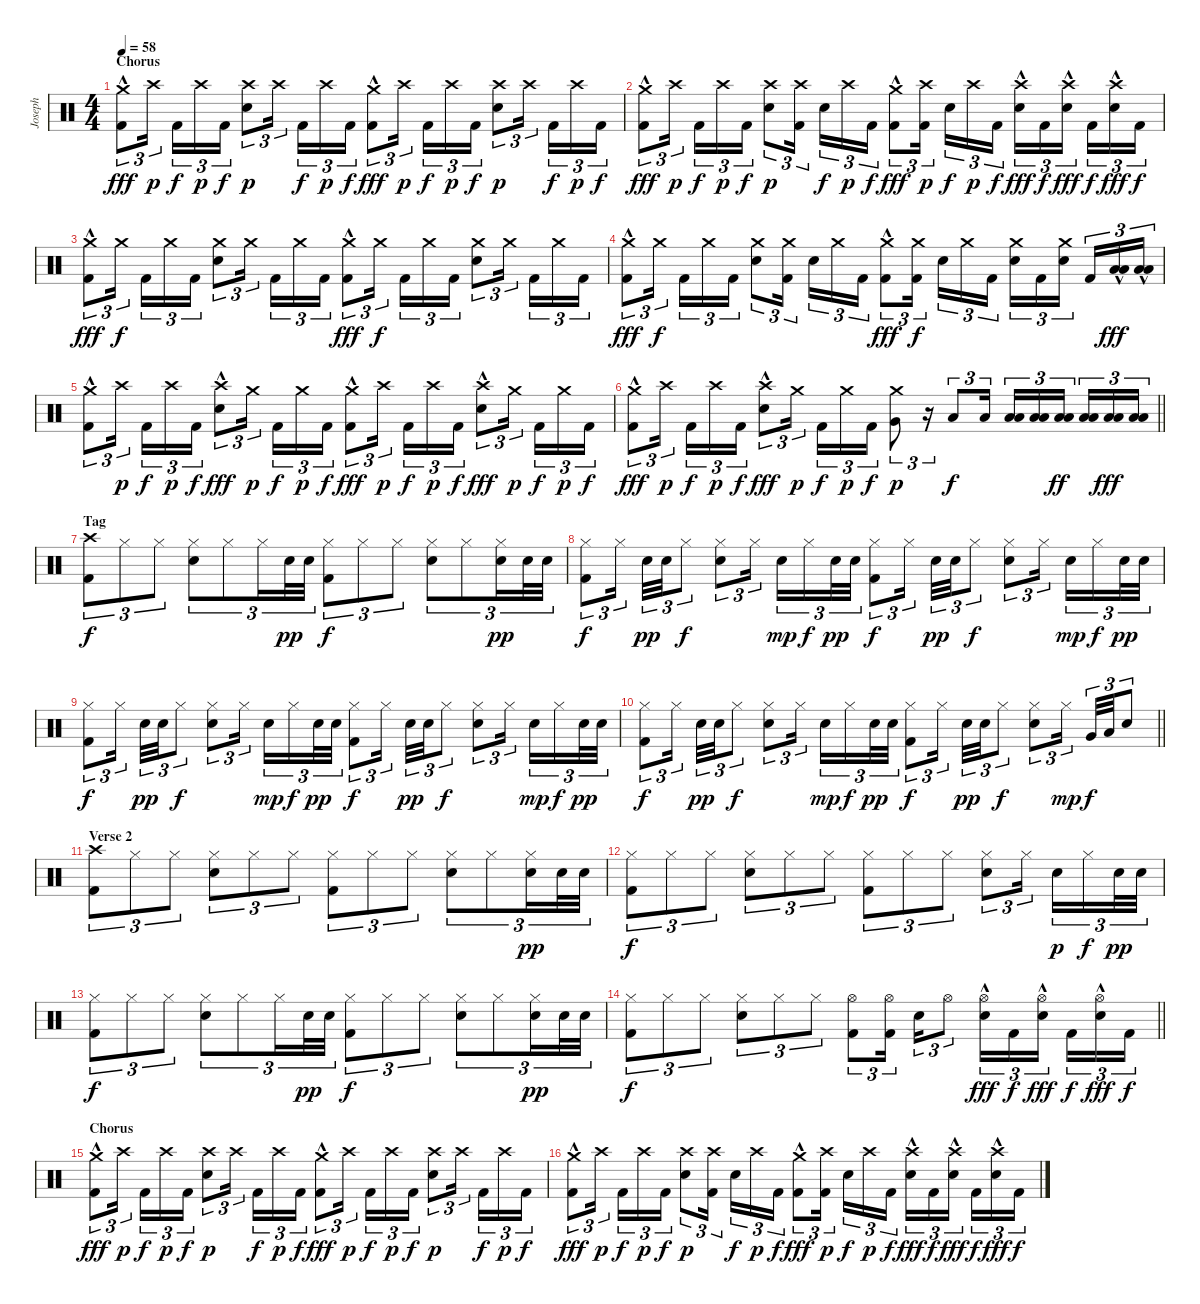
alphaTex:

\track ("Joseph" "Joseph") {instrument percussion}
\staff {score}
\articulation defaults
\ts (4 4)
\section ("" "Chorus")
\tempo 58
\clef neutral
\ks c
("Crash medium (hit)"{hac} "Kick (hit) 2").8{tu (3 2) dy fff} "Crash high (hit)".16{tu (3 2) dy p beam splitsecondary} "Kick (hit) 2".16{tu (3 2) dy f} "Crash high (hit)".16{tu (3 2) dy p} "Kick (hit) 2".16{tu (3 2) dy f} ("Crash high (hit)" "Electric Snare (hit)").8{tu (3 2) dy p} "Crash high (hit)".16{tu (3 2) beam splitsecondary} "Kick (hit) 2".16{tu (3 2) dy f} "Crash high (hit)".16{tu (3 2) dy p} "Kick (hit) 2".16{tu (3 2) dy f} ("Crash medium (hit)"{hac} "Kick (hit) 2").8{tu (3 2) dy fff} "Crash high (hit)".16{tu (3 2) dy p beam splitsecondary} "Kick (hit) 2".16{tu (3 2) dy f} "Crash high (hit)".16{tu (3 2) dy p} "Kick (hit) 2".16{tu (3 2) dy f} ("Crash high (hit)" "Electric Snare (hit)").8{tu (3 2) dy p} "Crash high (hit)".16{tu (3 2) beam splitsecondary} "Kick (hit) 2".16{tu (3 2) dy f} "Crash high (hit)".16{tu (3 2) dy p} "Kick (hit) 2".16{tu (3 2) dy f} |
("Crash medium (hit)"{hac} "Kick (hit) 2").8{tu (3 2) dy fff} "Crash high (hit)".16{tu (3 2) dy p beam splitsecondary} "Kick (hit) 2".16{tu (3 2) dy f} "Crash high (hit)".16{tu (3 2) dy p} "Kick (hit) 2".16{tu (3 2) dy f} ("Crash high (hit)" "Electric Snare (hit)").8{tu (3 2) dy p} ("Crash high (hit)" "Kick (hit) 2").16{tu (3 2) beam splitsecondary} "Electric Snare (hit)".16{tu (3 2) dy f} "Crash high (hit)".16{tu (3 2) dy p} "Kick (hit) 2".16{tu (3 2) dy f} ("Crash medium (hit)"{hac} "Kick (hit) 2").8{tu (3 2) dy fff} ("Crash high (hit)" "Kick (hit) 2").16{tu (3 2) dy p beam splitsecondary} "Electric Snare (hit)".16{tu (3 2) dy f} "Crash high (hit)".16{tu (3 2) dy p} "Kick (hit) 2".16{tu (3 2) dy f} ("Crash high (hit)" "Electric Snare (hit)"{hac}).16{tu (3 2) dy fff} "Kick (hit) 2".16{tu (3 2) dy f} ("Crash high (hit)" "Electric Snare (hit)"{hac}).16{tu (3 2) dy fff beam splitsecondary} "Kick (hit) 2".16{tu (3 2) dy f} ("Crash high (hit)" "Electric Snare (hit)"{hac}).16{tu (3 2) dy fff} "Kick (hit) 2".16{tu (3 2) dy f} |
("Crash medium (hit)"{hac} "Kick (hit) 2").8{tu (3 2) dy fff} "Crash medium (hit)".16{tu (3 2) dy f beam splitsecondary} "Kick (hit) 2".16{tu (3 2)} "Crash medium (hit)".16{tu (3 2)} "Kick (hit) 2".16{tu (3 2)} ("Crash medium (hit)" "Electric Snare (hit)").8{tu (3 2)} "Crash medium (hit)".16{tu (3 2) beam splitsecondary} "Kick (hit) 2".16{tu (3 2)} "Crash medium (hit)".16{tu (3 2)} "Kick (hit) 2".16{tu (3 2)} ("Crash medium (hit)"{hac} "Kick (hit) 2").8{tu (3 2) dy fff} "Crash medium (hit)".16{tu (3 2) dy f beam splitsecondary} "Kick (hit) 2".16{tu (3 2)} "Crash medium (hit)".16{tu (3 2)} "Kick (hit) 2".16{tu (3 2)} ("Crash medium (hit)" "Electric Snare (hit)").8{tu (3 2)} "Crash medium (hit)".16{tu (3 2) beam splitsecondary} "Kick (hit) 2".16{tu (3 2)} "Crash medium (hit)".16{tu (3 2)} "Kick (hit) 2".16{tu (3 2)} |
("Crash medium (hit)"{hac} "Kick (hit) 2").8{tu (3 2) dy fff} "Crash medium (hit)".16{tu (3 2) dy f beam splitsecondary} "Kick (hit) 2".16{tu (3 2)} "Crash medium (hit)".16{tu (3 2)} "Kick (hit) 2".16{tu (3 2)} ("Crash medium (hit)" "Electric Snare (hit)").8{tu (3 2)} ("Crash medium (hit)" "Kick (hit) 2").16{tu (3 2) beam splitsecondary} "Electric Snare (hit)".16{tu (3 2)} "Crash medium (hit)".16{tu (3 2)} "Kick (hit) 2".16{tu (3 2)} ("Crash medium (hit)"{hac} "Kick (hit) 2").8{tu (3 2) dy fff} ("Crash medium (hit)" "Kick (hit) 2").16{tu (3 2) dy f beam splitsecondary} "Electric Snare (hit)".16{tu (3 2)} "Crash medium (hit)".16{tu (3 2)} "Kick (hit) 2".16{tu (3 2)} ("Crash medium (hit)" "Electric Snare (hit)").16{tu (3 2)} "Kick (hit) 2".16{tu (3 2)} ("Crash medium (hit)" "Electric Snare (hit)").16{tu (3 2) beam splitsecondary} "Kick (hit) 2".16{tu (3 2)} ("Low Tom (hit)"{hac} "Low Tom (hit)"{hac}).16{tu (3 2) dy fff} ("Low Floor Tom (hit)"{hac} "Low Floor Tom (hit)"{hac}).16{tu (3 2)} |
("Crash medium (hit)"{hac} "Kick (hit) 2").8{tu (3 2)} "Crash high (hit)".16{tu (3 2) dy p beam splitsecondary} "Kick (hit) 2".16{tu (3 2) dy f} "Crash high (hit)".16{tu (3 2) dy p} "Kick (hit) 2".16{tu (3 2) dy f} ("Crash high (hit)"{hac} "Electric Snare (hit)").8{tu (3 2) dy fff} "Crash medium (hit)".16{tu (3 2) dy p beam splitsecondary} "Kick (hit) 2".16{tu (3 2) dy f} "Crash medium (hit)".16{tu (3 2) dy p} "Kick (hit) 2".16{tu (3 2) dy f} ("Crash medium (hit)"{hac} "Kick (hit) 2").8{tu (3 2) dy fff} "Crash high (hit)".16{tu (3 2) dy p beam splitsecondary} "Kick (hit) 2".16{tu (3 2) dy f} "Crash high (hit)".16{tu (3 2) dy p} "Kick (hit) 2".16{tu (3 2) dy f} ("Crash high (hit)"{hac} "Electric Snare (hit)").8{tu (3 2) dy fff} "Crash medium (hit)".16{tu (3 2) dy p beam splitsecondary} "Kick (hit) 2".16{tu (3 2) dy f} "Crash medium (hit)".16{tu (3 2) dy p} "Kick (hit) 2".16{tu (3 2) dy f} |
\barLineRight lightlight
("Crash medium (hit)"{hac} "Kick (hit) 2").8{tu (3 2) dy fff} "Crash high (hit)".16{tu (3 2) dy p beam splitsecondary} "Kick (hit) 2".16{tu (3 2) dy f} "Crash high (hit)".16{tu (3 2) dy p} "Kick (hit) 2".16{tu (3 2) dy f} ("Crash high (hit)"{hac} "Electric Snare (hit)").8{tu (3 2) dy fff} "Crash medium (hit)".16{tu (3 2) dy p beam splitsecondary} "Kick (hit) 2".16{tu (3 2) dy f} "Crash medium (hit)".16{tu (3 2) dy p} "Kick (hit) 2".16{tu (3 2) dy f} ("Crash medium (hit)" "Very Low Tom (hit)").8{tu (3 2) dy p} r.16{tu (3 2)} "Low Floor Tom (hit)".8{tu (3 2) dy f} "Low Floor Tom (hit)".16{tu (3 2)} ("Low Tom (hit)" "Low Floor Tom (hit)").16{tu (3 2)} ("Low Tom (hit)" "Low Floor Tom (hit)").16{tu (3 2)} ("Low Tom (hit)" "Low Floor Tom (hit)").16{tu (3 2) dy ff beam splitsecondary} ("Low Tom (hit)" "Low Floor Tom (hit)").16{tu (3 2)} ("Low Tom (hit)" "Low Floor Tom (hit)").16{tu (3 2) dy fff} ("Low Tom (hit)" "Low Floor Tom (hit)").16{tu (3 2)} |
\section ("" "Tag")
("Crash high (hit)" "Kick (hit) 2").8{tu (3 2) dy f} "Hi-Hat (closed)".8{tu (3 2)} "Hi-Hat (closed)".8{tu (3 2)} ("Hi-Hat (closed)" "Electric Snare (hit)").8{tu (3 2)} "Hi-Hat (closed)".8{tu (3 2)} "Hi-Hat (closed)".16{tu (3 2)} "Electric Snare (hit)".32{tu (3 2) dy pp} "Electric Snare (hit)".32{tu (3 2)} ("Hi-Hat (closed)" "Kick (hit) 2").8{tu (3 2) dy f} "Hi-Hat (closed)".8{tu (3 2)} "Hi-Hat (closed)".8{tu (3 2)} ("Hi-Hat (closed)" "Electric Snare (hit)").8{tu (3 2)} "Hi-Hat (closed)".8{tu (3 2)} ("Hi-Hat (closed)" "Electric Snare (hit)").16{tu (3 2) dy pp} "Electric Snare (hit)".32{tu (3 2)} "Electric Snare (hit)".32{tu (3 2)} |
("Hi-Hat (closed)" "Kick (hit) 2").8{tu (3 2) dy f} "Hi-Hat (closed)".16{tu (3 2) beam splitsecondary} "Electric Snare (hit)".32{tu (3 2) dy pp} "Electric Snare (hit)".32{tu (3 2)} "Hi-Hat (closed)".8{tu (3 2) dy f} ("Hi-Hat (closed)" "Electric Snare (hit)").8{tu (3 2)} "Hi-Hat (closed)".16{tu (3 2) beam splitsecondary} "Electric Snare (hit)".16{tu (3 2) dy mp} "Hi-Hat (closed)".16{tu (3 2) dy f} "Electric Snare (hit)".32{tu (3 2) dy pp} "Electric Snare (hit)".32{tu (3 2)} ("Hi-Hat (closed)" "Kick (hit) 2").8{tu (3 2) dy f} "Hi-Hat (closed)".16{tu (3 2) beam splitsecondary} "Electric Snare (hit)".32{tu (3 2) dy pp} "Electric Snare (hit)".32{tu (3 2)} "Hi-Hat (closed)".8{tu (3 2) dy f} ("Hi-Hat (closed)" "Electric Snare (hit)").8{tu (3 2)} "Hi-Hat (closed)".16{tu (3 2) beam splitsecondary} "Electric Snare (hit)".16{tu (3 2) dy mp} "Hi-Hat (closed)".16{tu (3 2) dy f} "Electric Snare (hit)".32{tu (3 2) dy pp} "Electric Snare (hit)".32{tu (3 2)} |
("Hi-Hat (closed)" "Kick (hit) 2").8{tu (3 2) dy f} "Hi-Hat (closed)".16{tu (3 2) beam splitsecondary} "Electric Snare (hit)".32{tu (3 2) dy pp} "Electric Snare (hit)".32{tu (3 2)} "Hi-Hat (closed)".8{tu (3 2) dy f} ("Hi-Hat (closed)" "Electric Snare (hit)").8{tu (3 2)} "Hi-Hat (closed)".16{tu (3 2) beam splitsecondary} "Electric Snare (hit)".16{tu (3 2) dy mp} "Hi-Hat (closed)".16{tu (3 2) dy f} "Electric Snare (hit)".32{tu (3 2) dy pp} "Electric Snare (hit)".32{tu (3 2)} ("Hi-Hat (closed)" "Kick (hit) 2").8{tu (3 2) dy f} "Hi-Hat (closed)".16{tu (3 2) beam splitsecondary} "Electric Snare (hit)".32{tu (3 2) dy pp} "Electric Snare (hit)".32{tu (3 2)} "Hi-Hat (closed)".8{tu (3 2) dy f} ("Hi-Hat (closed)" "Electric Snare (hit)").8{tu (3 2)} "Hi-Hat (closed)".16{tu (3 2) beam splitsecondary} "Electric Snare (hit)".16{tu (3 2) dy mp} "Hi-Hat (closed)".16{tu (3 2) dy f} "Electric Snare (hit)".32{tu (3 2) dy pp} "Electric Snare (hit)".32{tu (3 2)} |
\barLineRight lightlight
("Hi-Hat (closed)" "Kick (hit) 2").8{tu (3 2) dy f} "Hi-Hat (closed)".16{tu (3 2) beam splitsecondary} "Electric Snare (hit)".32{tu (3 2) dy pp} "Electric Snare (hit)".32{tu (3 2)} "Hi-Hat (closed)".8{tu (3 2) dy f} ("Hi-Hat (closed)" "Electric Snare (hit)").8{tu (3 2)} "Hi-Hat (closed)".16{tu (3 2) beam splitsecondary} "Electric Snare (hit)".16{tu (3 2) dy mp} "Hi-Hat (closed)".16{tu (3 2) dy f} "Electric Snare (hit)".32{tu (3 2) dy pp} "Electric Snare (hit)".32{tu (3 2)} ("Hi-Hat (closed)" "Kick (hit) 2").8{tu (3 2) dy f} "Hi-Hat (closed)".16{tu (3 2) beam splitsecondary} "Electric Snare (hit)".32{tu (3 2) dy pp} "Electric Snare (hit)".32{tu (3 2)} "Hi-Hat (closed)".8{tu (3 2) dy f} ("Hi-Hat (closed)" "Electric Snare (hit)").8{tu (3 2)} "Hi-Hat (closed)".16{tu (3 2) dy mp beam splitsecondary} "Very Low Tom (hit)".32{tu (3 2) dy f} "Low Tom (hit)".32{tu (3 2)} "Electric Snare (hit)".8{tu (3 2)} |
\section ("" "Verse 2")
("Crash high (hit)" "Kick (hit) 2").8{tu (3 2)} "Hi-Hat (closed)".8{tu (3 2)} "Hi-Hat (closed)".8{tu (3 2)} ("Hi-Hat (closed)" "Electric Snare (hit)").8{tu (3 2)} "Hi-Hat (closed)".8{tu (3 2)} "Hi-Hat (closed)".8{tu (3 2)} ("Hi-Hat (closed)" "Kick (hit) 2").8{tu (3 2)} "Hi-Hat (closed)".8{tu (3 2)} "Hi-Hat (closed)".8{tu (3 2)} ("Hi-Hat (closed)" "Electric Snare (hit)").8{tu (3 2)} "Hi-Hat (closed)".8{tu (3 2)} ("Hi-Hat (closed)" "Electric Snare (hit)").16{tu (3 2) dy pp} "Electric Snare (hit)".32{tu (3 2)} "Electric Snare (hit)".32{tu (3 2)} |
("Hi-Hat (closed)" "Kick (hit) 2").8{tu (3 2) dy f} "Hi-Hat (closed)".8{tu (3 2)} "Hi-Hat (closed)".8{tu (3 2)} ("Hi-Hat (closed)" "Electric Snare (hit)").8{tu (3 2)} "Hi-Hat (closed)".8{tu (3 2)} "Hi-Hat (closed)".8{tu (3 2)} ("Hi-Hat (closed)" "Kick (hit) 2").8{tu (3 2)} "Hi-Hat (closed)".8{tu (3 2)} "Hi-Hat (closed)".8{tu (3 2)} ("Hi-Hat (closed)" "Electric Snare (hit)").8{tu (3 2)} "Hi-Hat (closed)".16{tu (3 2) beam splitsecondary} "Electric Snare (hit)".16{tu (3 2) dy p} "Hi-Hat (closed)".16{tu (3 2) dy f} "Electric Snare (hit)".32{tu (3 2) dy pp} "Electric Snare (hit)".32{tu (3 2)} |
("Hi-Hat (closed)" "Kick (hit) 2").8{tu (3 2) dy f} "Hi-Hat (closed)".8{tu (3 2)} "Hi-Hat (closed)".8{tu (3 2)} ("Hi-Hat (closed)" "Electric Snare (hit)").8{tu (3 2)} "Hi-Hat (closed)".8{tu (3 2)} "Hi-Hat (closed)".16{tu (3 2)} "Electric Snare (hit)".32{tu (3 2) dy pp} "Electric Snare (hit)".32{tu (3 2)} ("Hi-Hat (closed)" "Kick (hit) 2").8{tu (3 2) dy f} "Hi-Hat (closed)".8{tu (3 2)} "Hi-Hat (closed)".8{tu (3 2)} ("Hi-Hat (closed)" "Electric Snare (hit)").8{tu (3 2)} "Hi-Hat (closed)".8{tu (3 2)} ("Hi-Hat (closed)" "Electric Snare (hit)").16{tu (3 2) dy pp} "Electric Snare (hit)".32{tu (3 2)} "Electric Snare (hit)".32{tu (3 2)} |
\barLineRight lightlight
("Hi-Hat (closed)" "Kick (hit) 2").8{tu (3 2) dy f} "Hi-Hat (closed)".8{tu (3 2)} "Hi-Hat (closed)".8{tu (3 2)} ("Hi-Hat (closed)" "Electric Snare (hit)").8{tu (3 2)} "Hi-Hat (closed)".8{tu (3 2)} "Hi-Hat (closed)".8{tu (3 2)} ("Hi-Hat (open)" "Kick (hit) 2").8{tu (3 2)} ("Hi-Hat (open)" "Kick (hit) 2").16{tu (3 2) beam splitsecondary} "Electric Snare (hit)".16{tu (3 2)} "Hi-Hat (open)".8{tu (3 2)} ("Hi-Hat (open)" "Electric Snare (hit)"{hac}).16{tu (3 2) dy fff} "Kick (hit) 2".16{tu (3 2) dy f} ("Hi-Hat (open)" "Electric Snare (hit)"{hac}).16{tu (3 2) dy fff beam splitsecondary} "Kick (hit) 2".16{tu (3 2) dy f} ("Hi-Hat (open)" "Electric Snare (hit)"{hac}).16{tu (3 2) dy fff} "Kick (hit) 2".16{tu (3 2) dy f} |
\section ("" "Chorus")
("Crash medium (hit)"{hac} "Kick (hit) 2").8{tu (3 2) dy fff} "Crash high (hit)".16{tu (3 2) dy p beam splitsecondary} "Kick (hit) 2".16{tu (3 2) dy f} "Crash high (hit)".16{tu (3 2) dy p} "Kick (hit) 2".16{tu (3 2) dy f} ("Crash high (hit)" "Electric Snare (hit)").8{tu (3 2) dy p} "Crash high (hit)".16{tu (3 2) beam splitsecondary} "Kick (hit) 2".16{tu (3 2) dy f} "Crash high (hit)".16{tu (3 2) dy p} "Kick (hit) 2".16{tu (3 2) dy f} ("Crash medium (hit)"{hac} "Kick (hit) 2").8{tu (3 2) dy fff} "Crash high (hit)".16{tu (3 2) dy p beam splitsecondary} "Kick (hit) 2".16{tu (3 2) dy f} "Crash high (hit)".16{tu (3 2) dy p} "Kick (hit) 2".16{tu (3 2) dy f} ("Crash high (hit)" "Electric Snare (hit)").8{tu (3 2) dy p} "Crash high (hit)".16{tu (3 2) beam splitsecondary} "Kick (hit) 2".16{tu (3 2) dy f} "Crash high (hit)".16{tu (3 2) dy p} "Kick (hit) 2".16{tu (3 2) dy f} |
("Crash medium (hit)"{hac} "Kick (hit) 2").8{tu (3 2) dy fff} "Crash high (hit)".16{tu (3 2) dy p beam splitsecondary} "Kick (hit) 2".16{tu (3 2) dy f} "Crash high (hit)".16{tu (3 2) dy p} "Kick (hit) 2".16{tu (3 2) dy f} ("Crash high (hit)" "Electric Snare (hit)").8{tu (3 2) dy p} ("Crash high (hit)" "Kick (hit) 2").16{tu (3 2) beam splitsecondary} "Electric Snare (hit)".16{tu (3 2) dy f} "Crash high (hit)".16{tu (3 2) dy p} "Kick (hit) 2".16{tu (3 2) dy f} ("Crash medium (hit)"{hac} "Kick (hit) 2").8{tu (3 2) dy fff} ("Crash high (hit)" "Kick (hit) 2").16{tu (3 2) dy p beam splitsecondary} "Electric Snare (hit)".16{tu (3 2) dy f} "Crash high (hit)".16{tu (3 2) dy p} "Kick (hit) 2".16{tu (3 2) dy f} ("Crash high (hit)" "Electric Snare (hit)"{hac}).16{tu (3 2) dy fff} "Kick (hit) 2".16{tu (3 2) dy f} ("Crash high (hit)" "Electric Snare (hit)"{hac}).16{tu (3 2) dy fff beam splitsecondary} "Kick (hit) 2".16{tu (3 2) dy f} ("Crash high (hit)" "Electric Snare (hit)"{hac}).16{tu (3 2) dy fff} "Kick (hit) 2".16{tu (3 2) dy f}
